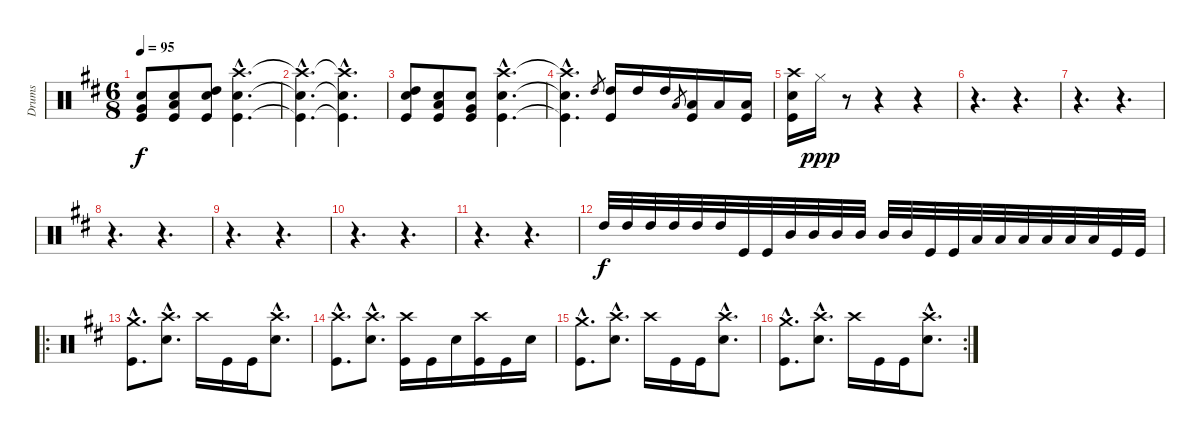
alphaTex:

\track ("Drums" "Drums") {instrument percussion}
\staff {score}
\articulation defaults
\ts (6 8)
\tempo 95
\clef neutral
\ks bminor
("Very Low Tom (hit)" "Snare (hit) 2" "Kick (hit)").8{dy f} ("Low Tom (hit)" "Snare (hit) 2" "Kick (hit)").8 ("High Tom (hit)" "Snare (hit) 2" "Kick (hit)").8 ("Crash high (hit)"{hac} "Snare (hit) 2"{hac} "Kick (hit)"{hac}).4{d} |
("Crash high (hit)"{hac t} "Snare (hit) 2"{hac t} "Kick (hit)"{hac t}).4{d} ("Crash high (hit)"{hac t} "Snare (hit) 2"{hac t} "Kick (hit)"{hac t}).4{d} |
("High Tom (hit)" "Snare (hit) 2" "Kick (hit)").8 ("Low Tom (hit)" "Snare (hit) 2" "Kick (hit)").8 ("Very Low Tom (hit)" "Snare (hit) 2" "Kick (hit)").8 ("Crash high (hit)"{hac} "Snare (hit) 2"{hac} "Kick (hit)"{hac}).4{d} |
("Crash high (hit)"{hac t} "Snare (hit) 2"{hac t} "Kick (hit)"{hac t}).4{d} "High Tom (hit)".8{gr} ("High Tom (hit)" "Kick (hit)").16 "High Tom (hit)".16 "High Tom (hit)".16 "Low Tom (hit)".8{gr} ("Low Tom (hit)" "Kick (hit)").16 "Low Tom (hit)".16 ("Low Tom (hit)" "Kick (hit)").16 |
("Crash high (hit)" "Snare (hit) 2" "Kick (hit)").16 "Hi-Hat (closed)".16{dy ppp} r.8 r.4 r.4 |
r.4{d} r.4{d} |
r.4{d} r.4{d} |
r.4{d} r.4{d} |
r.4{d} r.4{d} |
r.4{d} r.4{d} |
r.4{d} r.4{d} |
"High Tom (hit)".32{dy f} "High Tom (hit)".32 "High Tom (hit)".32 "High Tom (hit)".32 "High Tom (hit)".32 "High Tom (hit)".32 "Kick (hit)".32 "Kick (hit)".32 "Mid Tom (hit)".32 "Mid Tom (hit)".32 "Mid Tom (hit)".32 "Mid Tom (hit)".32 "Mid Tom (hit)".32 "Mid Tom (hit)".32 "Kick (hit)".32 "Kick (hit)".32 "Low Tom (hit)".32 "Low Tom (hit)".32 "Low Tom (hit)".32 "Low Tom (hit)".32 "Low Tom (hit)".32 "Low Tom (hit)".32 "Kick (hit)".32 "Kick (hit)".32 |
\ro
("Crash medium (hit)"{hac} "Kick (hit)"{hac}).8{d} ("Crash high (hit)"{hac} "Electric Snare (hit)"{hac}).8{d} "Crash high (hit)".16 "Kick (hit)".16 "Kick (hit)".16 ("Crash high (hit)"{hac} "Electric Snare (hit)"{hac}).8{d} |
("Crash high (hit)"{hac} "Kick (hit)"{hac}).8{d} ("Crash high (hit)"{hac} "Electric Snare (hit)"{hac}).8{d} ("Crash high (hit)" "Kick (hit)").16 "Kick (hit)".16 "Electric Snare (hit)".16 ("Crash high (hit)" "Kick (hit)").16 "Kick (hit)".16 "Electric Snare (hit)".16 |
("Crash medium (hit)"{hac} "Kick (hit)"{hac}).8{d} ("Crash high (hit)"{hac} "Electric Snare (hit)"{hac}).8{d} "Crash high (hit)".16 "Kick (hit)".16 "Kick (hit)".16 ("Crash high (hit)"{hac} "Electric Snare (hit)"{hac}).8{d} |
\rc 2
("Crash medium (hit)"{hac} "Kick (hit)"{hac}).8{d} ("Crash high (hit)"{hac} "Electric Snare (hit)"{hac}).8{d} "Crash high (hit)".16 "Kick (hit)".16 "Kick (hit)".16 ("Crash high (hit)"{hac} "Electric Snare (hit)"{hac}).8{d}
